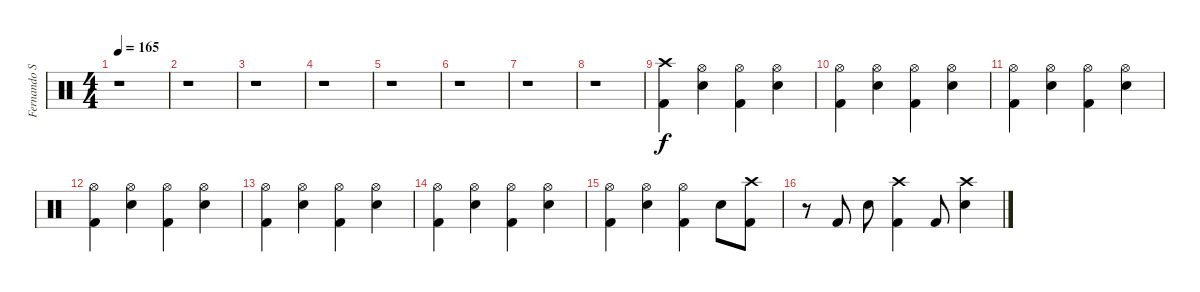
\track ("Fernando Scarcella" "Fernando S") {instrument percussion}
\staff {score}
\articulation defaults
\ts (4 4)
\tempo 165
\clef neutral
\ks c
r.1{dy f} |
r.1 |
r.1 |
r.1 |
r.1 |
r.1 |
r.1 |
r.1 |
("Crash high (hit)" "Kick (hit) 2").4 ("Hi-Hat (open)" "Snare (hit) 2").4 ("Hi-Hat (open)" "Kick (hit) 2").4 ("Hi-Hat (open)" "Snare (hit) 2").4 |
("Hi-Hat (open)" "Kick (hit) 2").4 ("Hi-Hat (open)" "Snare (hit) 2").4 ("Hi-Hat (open)" "Kick (hit) 2").4 ("Hi-Hat (open)" "Snare (hit) 2").4 |
("Hi-Hat (open)" "Kick (hit) 2").4 ("Hi-Hat (open)" "Snare (hit) 2").4 ("Hi-Hat (open)" "Kick (hit) 2").4 ("Hi-Hat (open)" "Snare (hit) 2").4 |
("Hi-Hat (open)" "Kick (hit) 2").4 ("Hi-Hat (open)" "Snare (hit) 2").4 ("Hi-Hat (open)" "Kick (hit) 2").4 ("Hi-Hat (open)" "Snare (hit) 2").4 |
("Hi-Hat (open)" "Kick (hit) 2").4 ("Hi-Hat (open)" "Snare (hit) 2").4 ("Hi-Hat (open)" "Kick (hit) 2").4 ("Hi-Hat (open)" "Snare (hit) 2").4 |
("Hi-Hat (open)" "Kick (hit) 2").4 ("Hi-Hat (open)" "Snare (hit) 2").4 ("Hi-Hat (open)" "Kick (hit) 2").4 ("Hi-Hat (open)" "Snare (hit) 2").4 |
("Hi-Hat (open)" "Kick (hit) 2").4 ("Hi-Hat (open)" "Snare (hit) 2").4 ("Hi-Hat (open)" "Kick (hit) 2").4 "Snare (hit) 2".8 ("Crash high (hit)" "Kick (hit) 2").8 |
r.8 "Kick (hit) 2".8 "Snare (hit) 2".8 ("Crash high (hit)" "Kick (hit) 2").4 "Kick (hit) 2".8 ("Crash high (hit)" "Snare (hit) 2").4
